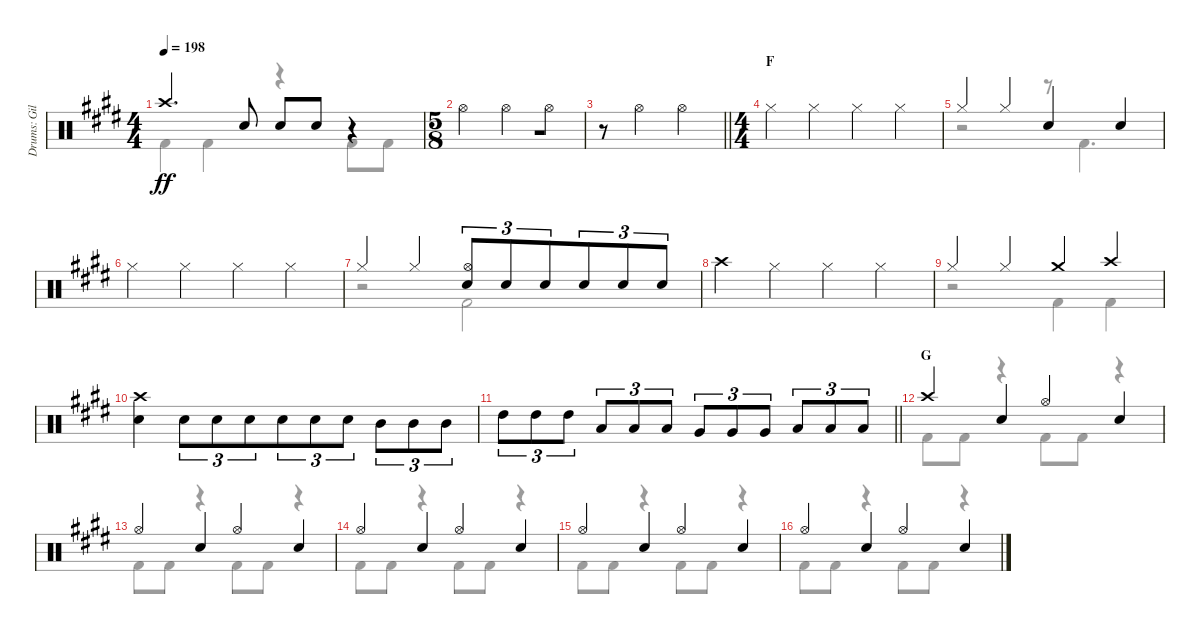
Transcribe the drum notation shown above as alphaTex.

\track ("Drums: Gil" "Drums: Gil") {instrument percussion}
\staff {score}
\articulation defaults
\voice
\ts (4 4)
\tempo 198
\clef neutral
\ks e "Crash high (hit)".4{d dy ff} "Snare (hit) 2".8 "Snare (hit) 2".8 "Snare (hit) 2".8
r.4 |
\ts (5 8)
"Hi-Hat (open)".4 "Hi-Hat (open)".4{beam merge} "Hi-Hat (open)".8 |
\barLineRight lightlight
r.8 "Hi-Hat (open)".4 "Hi-Hat (open)".4 |
\ts (4 4)
\section ("" "F")
"Hi-Hat (closed)".4 "Hi-Hat (closed)".4{beam merge} "Hi-Hat (closed)".4 "Hi-Hat (closed)".4 |
"Hi-Hat (closed)".4 "Hi-Hat (closed)".4{beam merge} "Snare (hit) 2".4 "Snare (hit) 2".4 |
"Hi-Hat (closed)".4 "Hi-Hat (closed)".4{beam merge} "Hi-Hat (closed)".4 "Hi-Hat (closed)".4 |
"Hi-Hat (closed)".4 "Hi-Hat (closed)".4{beam merge} ("Hi-Hat (open)" "Snare (hit) 2").8{tu (3 2)} "Snare (hit) 2".8{tu (3 2)} "Snare (hit) 2".8{tu (3 2) beam merge} "Snare (hit) 2".8{tu (3 2)} "Snare (hit) 2".8{tu (3 2)} "Snare (hit) 2".8{tu (3 2)} |
"Crash high (hit)".4 "Hi-Hat (closed)".4{beam merge} "Hi-Hat (closed)".4 "Hi-Hat (closed)".4 |
"Hi-Hat (closed)".4 "Hi-Hat (closed)".4{beam merge} "Crash medium (hit)".4 "Crash high (hit)".4 |
("Crash high (hit)" "Snare (hit) 2").4{beam merge} "Snare (hit) 2".8{tu (3 2)} "Snare (hit) 2".8{tu (3 2)} "Snare (hit) 2".8{tu (3 2) beam merge} "Snare (hit) 2".8{tu (3 2)} "Snare (hit) 2".8{tu (3 2)} "Snare (hit) 2".8{tu (3 2)} "Mid Tom (hit)".8{tu (3 2)} "Mid Tom (hit)".8{tu (3 2)} "Mid Tom (hit)".8{tu (3 2)} |
\barLineRight lightlight "High Tom (hit)".8{tu (3 2)} "High Tom (hit)".8{tu (3 2)} "High Tom (hit)".8{tu (3 2)} "Low Tom (hit)".8{tu (3 2)} "Low Tom (hit)".8{tu (3 2)} "Low Tom (hit)".8{tu (3 2)} "Very Low Tom (hit)".8{tu (3 2)} "Very Low Tom (hit)".8{tu (3 2)} "Very Low Tom (hit)".8{tu (3 2)} "Low Floor Tom (hit)".8{tu (3 2)} "Low Floor Tom (hit)".8{tu (3 2)} "Low Floor Tom (hit)".8{tu (3 2)}
|
\section ("" "G")
"Crash high (hit)".4 "Snare (hit) 2".4{beam merge} "Hi-Hat (open)".4 "Snare (hit) 2".4 |
"Hi-Hat (open)".4 "Snare (hit) 2".4{beam merge} "Hi-Hat (open)".4 "Snare (hit) 2".4 |
"Hi-Hat (open)".4 "Snare (hit) 2".4{beam merge} "Hi-Hat (open)".4 "Snare (hit) 2".4 |
"Hi-Hat (open)".4 "Snare (hit) 2".4{beam merge} "Hi-Hat (open)".4 "Snare (hit) 2".4 |
"Hi-Hat (open)".4 "Snare (hit) 2".4{beam merge} "Hi-Hat (open)".4 "Snare (hit) 2".4
\voice
\clef neutral
\ottava regular
\simile none
\ks e "Kick (hit) 2".4{dy ff beam merge} "Kick (hit) 2".4
r.4 "Kick (hit) 2".8 "Kick (hit) 2".8 |
|
\barLineRight lightlight
|
|
r.2 r.8 "Kick (hit) 2".4{d} |
|
r.2 "Kick (hit) 2".2 |
|
r.2 "Kick (hit) 2".4 "Kick (hit) 2".4 |
|
\barLineRight lightlight
|
"Kick (hit) 2".8 "Kick (hit) 2".8 r.4 "Kick (hit) 2".8 "Kick (hit) 2".8 r.4 |
"Kick (hit) 2".8 "Kick (hit) 2".8 r.4 "Kick (hit) 2".8 "Kick (hit) 2".8 r.4 |
"Kick (hit) 2".8 "Kick (hit) 2".8 r.4 "Kick (hit) 2".8 "Kick (hit) 2".8 r.4 |
"Kick (hit) 2".8 "Kick (hit) 2".8 r.4 "Kick (hit) 2".8 "Kick (hit) 2".8 r.4 |
"Kick (hit) 2".8 "Kick (hit) 2".8 r.4 "Kick (hit) 2".8 "Kick (hit) 2".8 r.4
